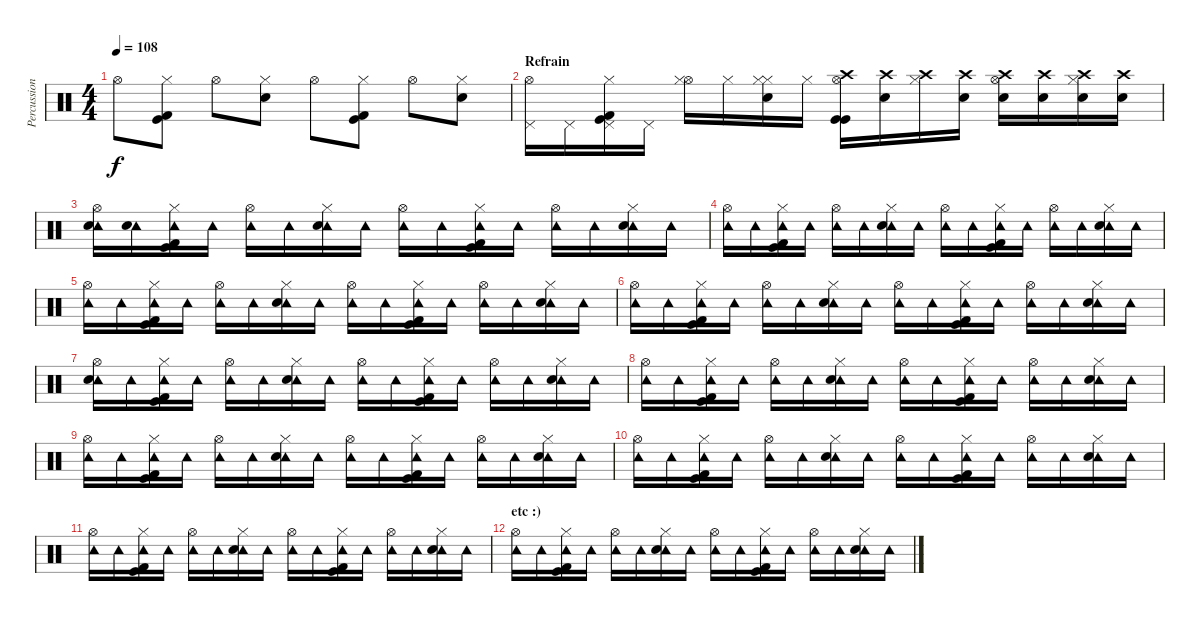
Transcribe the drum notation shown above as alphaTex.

\track ("Percussion" "Percussion") {instrument percussion}
\staff {score}
\articulation defaults
\ts (4 4)
\tempo 108
\clef neutral
\ks c "Hi-Hat (open)".8{dy f}
("Hi-Hat (closed)" "Kick (hit)" "Kick (hit) 2").8 "Hi-Hat (open)".8 ("Hi-Hat (closed)" "Snare (hit) 2").8 "Hi-Hat (open)".8 ("Hi-Hat (closed)" "Kick (hit)" "Kick (hit) 2").8 "Hi-Hat (open)".8 ("Hi-Hat (closed)" "Snare (hit) 2").8 |
\section ("" "Refrain")
("Hi-Hat (open)" "Pedal Hi-Hat (hit)").16 "Pedal Hi-Hat (hit)".16 ("Hi-Hat (closed)" "Pedal Hi-Hat (hit)" "Kick (hit)" "Kick (hit) 2").16 "Pedal Hi-Hat (hit)".16 ("Hi-Hat (open)" "Hi-Hat (closed)").16 "Hi-Hat (closed)".16 ("Hi-Hat (closed)" "Hi-Hat (closed)" "Snare (hit) 2").16 "Hi-Hat (closed)".16 ("Hi-Hat (open)" "Crash high (hit)" "Kick (hit)" "Kick (hit)").16 ("Crash high (hit)" "Snare (hit) 2").16 ("Hi-Hat (closed)" "Crash high (hit)").16 ("Crash high (hit)" "Snare (hit) 2").16 ("Hi-Hat (open)" "Crash high (hit)" "Snare (hit) 2").16 ("Crash high (hit)" "Snare (hit) 2").16 ("Hi-Hat (closed)" "Crash high (hit)" "Snare (hit) 2").16 ("Crash high (hit)" "Snare (hit) 2").16 |
("Hi-Hat (open)" "Tambourine (hit)" "Snare (hit) 2").16 ("Tambourine (hit)" "Snare (hit) 2").16 ("Hi-Hat (closed)" "Tambourine (hit)" "Kick (hit)" "Kick (hit) 2").16 "Tambourine (hit)".16 ("Hi-Hat (open)" "Tambourine (hit)").16 "Tambourine (hit)".16 ("Hi-Hat (closed)" "Tambourine (hit)" "Snare (hit) 2").16 "Tambourine (hit)".16 ("Hi-Hat (open)" "Tambourine (hit)").16 "Tambourine (hit)".16 ("Hi-Hat (closed)" "Tambourine (hit)" "Kick (hit)" "Kick (hit) 2").16 "Tambourine (hit)".16 ("Hi-Hat (open)" "Tambourine (hit)").16 "Tambourine (hit)".16 ("Hi-Hat (closed)" "Tambourine (hit)" "Snare (hit) 2").16 "Tambourine (hit)".16 |
("Hi-Hat (open)" "Tambourine (hit)").16 "Tambourine (hit)".16 ("Hi-Hat (closed)" "Tambourine (hit)" "Kick (hit)" "Kick (hit) 2").16 "Tambourine (hit)".16 ("Hi-Hat (open)" "Tambourine (hit)").16 "Tambourine (hit)".16 ("Hi-Hat (closed)" "Tambourine (hit)" "Snare (hit) 2").16 "Tambourine (hit)".16 ("Hi-Hat (open)" "Tambourine (hit)").16 "Tambourine (hit)".16 ("Hi-Hat (closed)" "Tambourine (hit)" "Kick (hit)" "Kick (hit) 2").16 "Tambourine (hit)".16 ("Hi-Hat (open)" "Tambourine (hit)").16 "Tambourine (hit)".16 ("Hi-Hat (closed)" "Tambourine (hit)" "Snare (hit) 2").16 "Tambourine (hit)".16 |
("Hi-Hat (open)" "Tambourine (hit)").16 "Tambourine (hit)".16 ("Hi-Hat (closed)" "Tambourine (hit)" "Kick (hit)" "Kick (hit) 2").16 "Tambourine (hit)".16 ("Hi-Hat (open)" "Tambourine (hit)").16 "Tambourine (hit)".16 ("Hi-Hat (closed)" "Tambourine (hit)" "Snare (hit) 2").16 "Tambourine (hit)".16 ("Hi-Hat (open)" "Tambourine (hit)").16 "Tambourine (hit)".16 ("Hi-Hat (closed)" "Tambourine (hit)" "Kick (hit)" "Kick (hit) 2").16 "Tambourine (hit)".16 ("Hi-Hat (open)" "Tambourine (hit)").16 "Tambourine (hit)".16 ("Hi-Hat (closed)" "Tambourine (hit)" "Snare (hit) 2").16 "Tambourine (hit)".16 |
("Hi-Hat (open)" "Tambourine (hit)").16 "Tambourine (hit)".16 ("Hi-Hat (closed)" "Tambourine (hit)" "Kick (hit)" "Kick (hit) 2").16 "Tambourine (hit)".16 ("Hi-Hat (open)" "Tambourine (hit)").16 "Tambourine (hit)".16 ("Hi-Hat (closed)" "Tambourine (hit)" "Snare (hit) 2").16 "Tambourine (hit)".16 ("Hi-Hat (open)" "Tambourine (hit)").16 "Tambourine (hit)".16 ("Hi-Hat (closed)" "Tambourine (hit)" "Kick (hit)" "Kick (hit) 2").16 "Tambourine (hit)".16 ("Hi-Hat (open)" "Tambourine (hit)").16 "Tambourine (hit)".16 ("Hi-Hat (closed)" "Tambourine (hit)" "Snare (hit) 2").16 "Tambourine (hit)".16 |
("Hi-Hat (open)" "Tambourine (hit)" "Snare (hit) 2").16 "Tambourine (hit)".16 ("Hi-Hat (closed)" "Tambourine (hit)" "Kick (hit)" "Kick (hit) 2").16 "Tambourine (hit)".16 ("Hi-Hat (open)" "Tambourine (hit)").16 "Tambourine (hit)".16 ("Hi-Hat (closed)" "Tambourine (hit)" "Snare (hit) 2").16 "Tambourine (hit)".16 ("Hi-Hat (open)" "Tambourine (hit)").16 "Tambourine (hit)".16 ("Hi-Hat (closed)" "Tambourine (hit)" "Kick (hit)" "Kick (hit) 2").16 "Tambourine (hit)".16 ("Hi-Hat (open)" "Tambourine (hit)").16 "Tambourine (hit)".16 ("Hi-Hat (closed)" "Tambourine (hit)" "Snare (hit) 2").16 "Tambourine (hit)".16 |
("Hi-Hat (open)" "Tambourine (hit)").16 "Tambourine (hit)".16 ("Hi-Hat (closed)" "Tambourine (hit)" "Kick (hit)" "Kick (hit) 2").16 "Tambourine (hit)".16 ("Hi-Hat (open)" "Tambourine (hit)").16 "Tambourine (hit)".16 ("Hi-Hat (closed)" "Tambourine (hit)" "Snare (hit) 2").16 "Tambourine (hit)".16 ("Hi-Hat (open)" "Tambourine (hit)").16 "Tambourine (hit)".16 ("Hi-Hat (closed)" "Tambourine (hit)" "Kick (hit)" "Kick (hit) 2").16 "Tambourine (hit)".16 ("Hi-Hat (open)" "Tambourine (hit)").16 "Tambourine (hit)".16 ("Hi-Hat (closed)" "Tambourine (hit)" "Snare (hit) 2").16 "Tambourine (hit)".16 |
("Hi-Hat (open)" "Tambourine (hit)").16 "Tambourine (hit)".16 ("Hi-Hat (closed)" "Tambourine (hit)" "Kick (hit)" "Kick (hit) 2").16 "Tambourine (hit)".16 ("Hi-Hat (open)" "Tambourine (hit)").16 "Tambourine (hit)".16 ("Hi-Hat (closed)" "Tambourine (hit)" "Snare (hit) 2").16 "Tambourine (hit)".16 ("Hi-Hat (open)" "Tambourine (hit)").16 "Tambourine (hit)".16 ("Hi-Hat (closed)" "Tambourine (hit)" "Kick (hit)" "Kick (hit) 2").16 "Tambourine (hit)".16 ("Hi-Hat (open)" "Tambourine (hit)").16 "Tambourine (hit)".16 ("Hi-Hat (closed)" "Tambourine (hit)" "Snare (hit) 2").16 "Tambourine (hit)".16 |
("Hi-Hat (open)" "Tambourine (hit)").16 "Tambourine (hit)".16 ("Hi-Hat (closed)" "Tambourine (hit)" "Kick (hit)" "Kick (hit) 2").16 "Tambourine (hit)".16 ("Hi-Hat (open)" "Tambourine (hit)").16 "Tambourine (hit)".16 ("Hi-Hat (closed)" "Tambourine (hit)" "Snare (hit) 2").16 "Tambourine (hit)".16 ("Hi-Hat (open)" "Tambourine (hit)").16 "Tambourine (hit)".16 ("Hi-Hat (closed)" "Tambourine (hit)" "Kick (hit)" "Kick (hit) 2").16 "Tambourine (hit)".16 ("Hi-Hat (open)" "Tambourine (hit)").16 "Tambourine (hit)".16 ("Hi-Hat (closed)" "Tambourine (hit)" "Snare (hit) 2").16 "Tambourine (hit)".16 |
("Hi-Hat (open)" "Tambourine (hit)").16 "Tambourine (hit)".16 ("Hi-Hat (closed)" "Tambourine (hit)" "Kick (hit)" "Kick (hit) 2").16 "Tambourine (hit)".16 ("Hi-Hat (open)" "Tambourine (hit)").16 "Tambourine (hit)".16 ("Hi-Hat (closed)" "Tambourine (hit)" "Snare (hit) 2").16 "Tambourine (hit)".16 ("Hi-Hat (open)" "Tambourine (hit)").16 "Tambourine (hit)".16 ("Hi-Hat (closed)" "Tambourine (hit)" "Kick (hit)" "Kick (hit) 2").16 "Tambourine (hit)".16 ("Hi-Hat (open)" "Tambourine (hit)").16 "Tambourine (hit)".16 ("Hi-Hat (closed)" "Tambourine (hit)" "Snare (hit) 2").16 "Tambourine (hit)".16 |
\section ("" "etc :)")
("Hi-Hat (open)" "Tambourine (hit)").16 "Tambourine (hit)".16 ("Hi-Hat (closed)" "Tambourine (hit)" "Kick (hit)" "Kick (hit) 2").16 "Tambourine (hit)".16 ("Hi-Hat (open)" "Tambourine (hit)").16 "Tambourine (hit)".16 ("Hi-Hat (closed)" "Tambourine (hit)" "Snare (hit) 2").16 "Tambourine (hit)".16 ("Hi-Hat (open)" "Tambourine (hit)").16 "Tambourine (hit)".16 ("Hi-Hat (closed)" "Tambourine (hit)" "Kick (hit)" "Kick (hit) 2").16 "Tambourine (hit)".16 ("Hi-Hat (open)" "Tambourine (hit)").16 "Tambourine (hit)".16 ("Hi-Hat (closed)" "Tambourine (hit)" "Snare (hit) 2").16 "Tambourine (hit)".16
